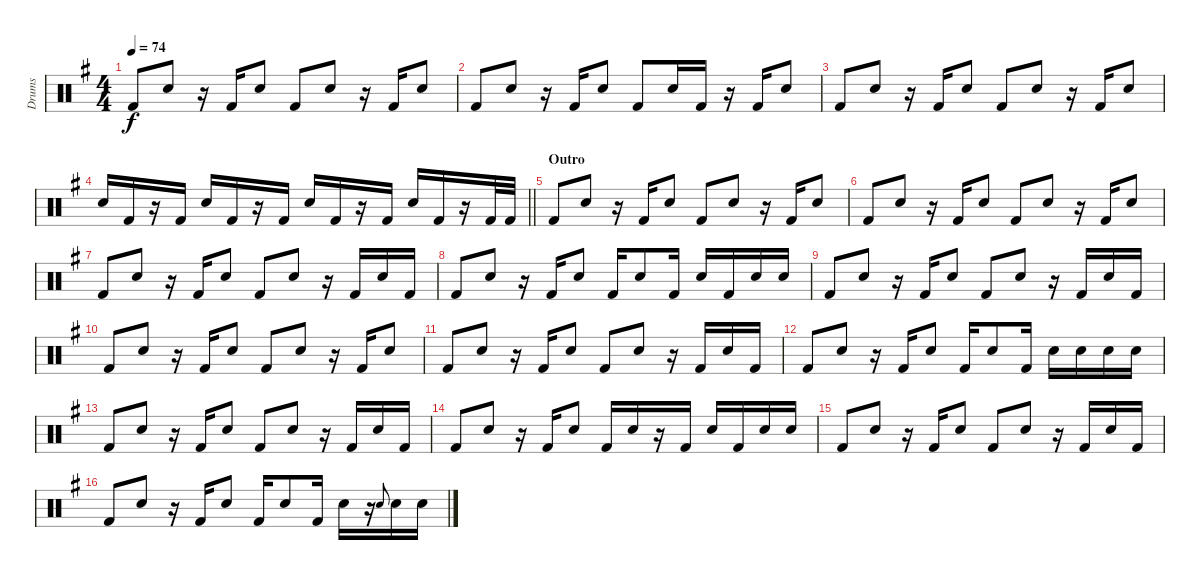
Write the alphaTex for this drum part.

\track ("Drums" "Drums") {instrument percussion}
\staff {score}
\articulation defaults
\ts (4 4)
\tempo 74
\clef neutral
\ks g "Kick (hit) 2".8{dy f} "Snare (hit) 2".8
r.16 "Kick (hit) 2".16 "Snare (hit) 2".8 "Kick (hit) 2".8 "Snare (hit) 2".8 r.16 "Kick (hit) 2".16 "Snare (hit) 2".8 |
"Kick (hit) 2".8 "Snare (hit) 2".8 r.16 "Kick (hit) 2".16 "Snare (hit) 2".8 "Kick (hit) 2".8 "Snare (hit) 2".16 "Kick (hit) 2".16 r.16 "Kick (hit) 2".16 "Snare (hit) 2".8 |
"Kick (hit) 2".8 "Snare (hit) 2".8 r.16 "Kick (hit) 2".16 "Snare (hit) 2".8 "Kick (hit) 2".8 "Snare (hit) 2".8 r.16 "Kick (hit) 2".16 "Snare (hit) 2".8 |
\barLineRight lightlight "Snare (hit) 2".16 "Kick (hit) 2".16
r.16 "Kick (hit) 2".16 "Snare (hit) 2".16 "Kick (hit) 2".16 r.16 "Kick (hit) 2".16 "Snare (hit) 2".16 "Kick (hit) 2".16 r.16 "Kick (hit) 2".16 "Snare (hit) 2".16 "Kick (hit) 2".16 r.16 "Kick (hit) 2".32 "Kick (hit) 2".32 |
\section ("" "Outro")
"Kick (hit) 2".8 "Snare (hit) 2".8 r.16 "Kick (hit) 2".16 "Snare (hit) 2".8 "Kick (hit) 2".8 "Snare (hit) 2".8 r.16 "Kick (hit) 2".16 "Snare (hit) 2".8 |
"Kick (hit) 2".8 "Snare (hit) 2".8 r.16 "Kick (hit) 2".16 "Snare (hit) 2".8 "Kick (hit) 2".8 "Snare (hit) 2".8 r.16 "Kick (hit) 2".16 "Snare (hit) 2".8 |
"Kick (hit) 2".8 "Snare (hit) 2".8 r.16 "Kick (hit) 2".16 "Snare (hit) 2".8 "Kick (hit) 2".8 "Snare (hit) 2".8 r.16 "Kick (hit) 2".16 "Snare (hit) 2".16 "Kick (hit) 2".16 |
"Kick (hit) 2".8 "Snare (hit) 2".8 r.16 "Kick (hit) 2".16 "Snare (hit) 2".8 "Kick (hit) 2".16 "Snare (hit) 2".8 "Kick (hit) 2".16 "Snare (hit) 2".16 "Kick (hit) 2".16 "Snare (hit) 2".16 "Snare (hit) 2".16 |
"Kick (hit) 2".8 "Snare (hit) 2".8 r.16 "Kick (hit) 2".16 "Snare (hit) 2".8 "Kick (hit) 2".8 "Snare (hit) 2".8 r.16 "Kick (hit) 2".16 "Snare (hit) 2".16 "Kick (hit) 2".16 |
"Kick (hit) 2".8 "Snare (hit) 2".8 r.16 "Kick (hit) 2".16 "Snare (hit) 2".8 "Kick (hit) 2".8 "Snare (hit) 2".8 r.16 "Kick (hit) 2".16 "Snare (hit) 2".8 |
"Kick (hit) 2".8 "Snare (hit) 2".8 r.16 "Kick (hit) 2".16 "Snare (hit) 2".8 "Kick (hit) 2".8 "Snare (hit) 2".8 r.16 "Kick (hit) 2".16 "Snare (hit) 2".16 "Kick (hit) 2".16 |
"Kick (hit) 2".8 "Snare (hit) 2".8 r.16 "Kick (hit) 2".16 "Snare (hit) 2".8 "Kick (hit) 2".16 "Snare (hit) 2".8 "Kick (hit) 2".16 "Snare (hit) 2".16 "Snare (hit) 2".16 "Snare (hit) 2".16 "Snare (hit) 2".16 |
"Kick (hit) 2".8 "Snare (hit) 2".8 r.16 "Kick (hit) 2".16 "Snare (hit) 2".8 "Kick (hit) 2".8 "Snare (hit) 2".8 r.16 "Kick (hit) 2".16 "Snare (hit) 2".16 "Kick (hit) 2".16 |
"Kick (hit) 2".8 "Snare (hit) 2".8 r.16 "Kick (hit) 2".16 "Snare (hit) 2".8 "Kick (hit) 2".16 "Snare (hit) 2".16 r.16 "Kick (hit) 2".16 "Snare (hit) 2".16 "Kick (hit) 2".16 "Snare (hit) 2".16 "Snare (hit) 2".16 |
"Kick (hit) 2".8 "Snare (hit) 2".8 r.16 "Kick (hit) 2".16 "Snare (hit) 2".8 "Kick (hit) 2".8 "Snare (hit) 2".8 r.16 "Kick (hit) 2".16 "Snare (hit) 2".16 "Kick (hit) 2".16 |
"Kick (hit) 2".8 "Snare (hit) 2".8 r.16 "Kick (hit) 2".16 "Snare (hit) 2".8 "Kick (hit) 2".16 "Snare (hit) 2".8 "Kick (hit) 2".16 "Snare (hit) 2".16 r.16 "Snare (hit)".8{gr onbeat} "Snare (hit) 2".16 "Snare (hit) 2".16
